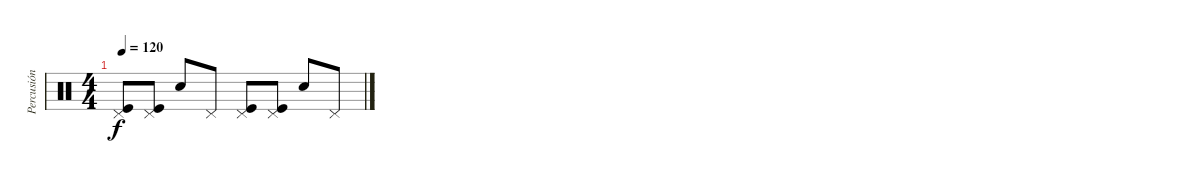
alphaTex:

\track ("Percusión" "Percusión") {instrument percussion}
\staff {score}
\articulation defaults
\ts (4 4)
\tempo 120
\clef neutral
\ks c
("Pedal Hi-Hat (hit)" "Kick (hit)").8{dy f} ("Pedal Hi-Hat (hit)" "Kick (hit)").8 "Electric Snare (hit)".8 "Pedal Hi-Hat (hit)".8 ("Pedal Hi-Hat (hit)" "Kick (hit)").8 ("Pedal Hi-Hat (hit)" "Kick (hit)").8 "Electric Snare (hit)".8 "Pedal Hi-Hat (hit)".8
